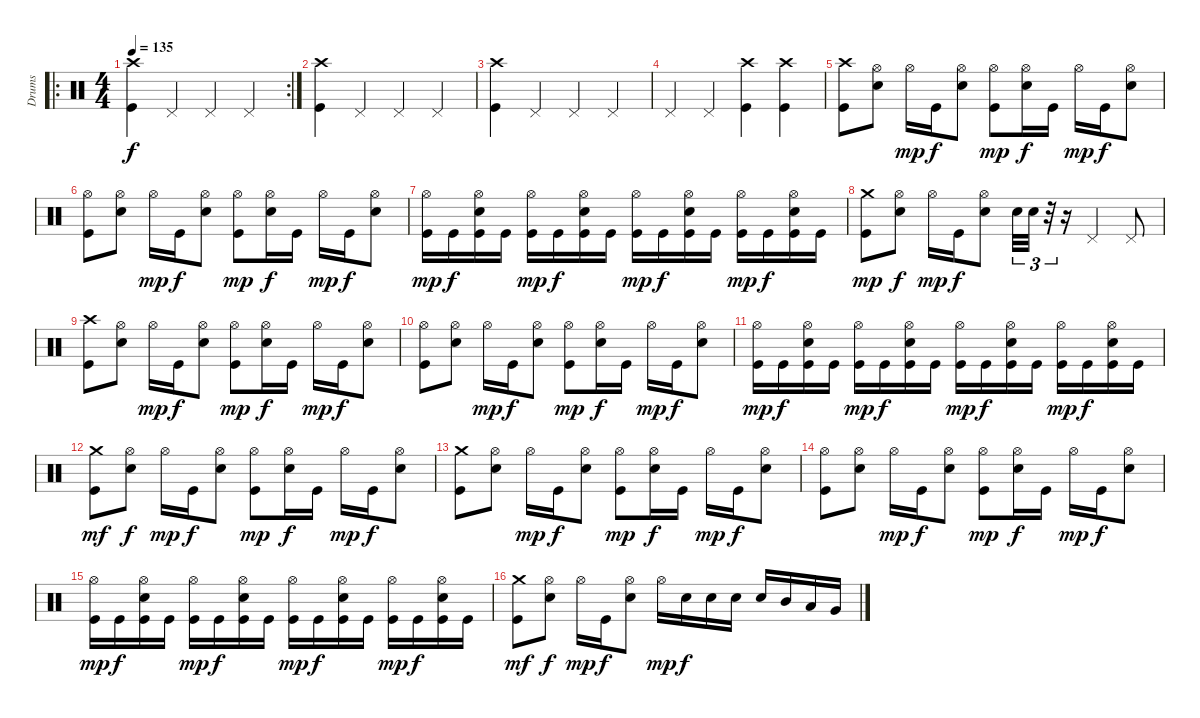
\track ("Drums" "Drums") {instrument percussion}
\staff {score}
\articulation defaults
\ro
\rc 2
\ts (4 4)
\tempo 135
\clef neutral
\ks c
("Crash high (hit)" "Kick (hit)").4{dy f} "Pedal Hi-Hat (hit)".4 "Pedal Hi-Hat (hit)".4 "Pedal Hi-Hat (hit)".4 |
("Crash high (hit)" "Kick (hit)").4 "Pedal Hi-Hat (hit)".4 "Pedal Hi-Hat (hit)".4 "Pedal Hi-Hat (hit)".4 |
("Crash high (hit)" "Kick (hit)").4 "Pedal Hi-Hat (hit)".4 "Pedal Hi-Hat (hit)".4 "Pedal Hi-Hat (hit)".4 |
"Pedal Hi-Hat (hit)".4 "Pedal Hi-Hat (hit)".4 ("Crash high (hit)" "Kick (hit)").4 ("Crash high (hit)" "Kick (hit)").4 |
("Crash high (hit)" "Kick (hit)").8 ("Hi-Hat (open)" "Snare (hit) 2").8 "Hi-Hat (open)".16{dy mp} "Kick (hit)".16{dy f} ("Hi-Hat (open)" "Snare (hit) 2").8 ("Hi-Hat (open)" "Kick (hit)").8{dy mp} ("Hi-Hat (open)" "Snare (hit) 2").16{dy f} "Kick (hit)".16 "Hi-Hat (open)".16{dy mp} "Kick (hit)".16{dy f} ("Hi-Hat (open)" "Snare (hit) 2").8 |
("Hi-Hat (open)" "Kick (hit)").8 ("Hi-Hat (open)" "Snare (hit) 2").8 "Hi-Hat (open)".16{dy mp} "Kick (hit)".16{dy f} ("Hi-Hat (open)" "Snare (hit) 2").8 ("Hi-Hat (open)" "Kick (hit)").8{dy mp} ("Hi-Hat (open)" "Snare (hit) 2").16{dy f} "Kick (hit)".16 "Hi-Hat (open)".16{dy mp} "Kick (hit)".16{dy f} ("Hi-Hat (open)" "Snare (hit) 2").8 |
("Hi-Hat (open)" "Kick (hit)").16{dy mp} "Kick (hit)".16{dy f} ("Hi-Hat (open)" "Snare (hit) 2" "Kick (hit)").16 "Kick (hit)".16 ("Hi-Hat (open)" "Kick (hit)").16{dy mp} "Kick (hit)".16{dy f} ("Hi-Hat (open)" "Snare (hit) 2" "Kick (hit)").16 "Kick (hit)".16 ("Hi-Hat (open)" "Kick (hit)").16{dy mp} "Kick (hit)".16{dy f} ("Hi-Hat (open)" "Snare (hit) 2" "Kick (hit)").16 "Kick (hit)".16 ("Hi-Hat (open)" "Kick (hit)").16{dy mp} "Kick (hit)".16{dy f} ("Hi-Hat (open)" "Snare (hit) 2" "Kick (hit)").16 "Kick (hit)".16 |
("Crash medium (hit)" "Kick (hit)").8{dy mp} ("Hi-Hat (open)" "Snare (hit) 2").8{dy f} "Hi-Hat (open)".16{dy mp} "Kick (hit)".16{dy f} ("Hi-Hat (open)" "Snare (hit) 2").8 "Snare (hit) 2".32{tu (3 2)} "Snare (hit) 2".32{tu (3 2)} r.32{tu (3 2)} r.16 "Pedal Hi-Hat (hit)".4 "Pedal Hi-Hat (hit)".8 |
("Crash high (hit)" "Kick (hit)").8 ("Hi-Hat (open)" "Snare (hit) 2").8 "Hi-Hat (open)".16{dy mp} "Kick (hit)".16{dy f} ("Hi-Hat (open)" "Snare (hit) 2").8 ("Hi-Hat (open)" "Kick (hit)").8{dy mp} ("Hi-Hat (open)" "Snare (hit) 2").16{dy f} "Kick (hit)".16 "Hi-Hat (open)".16{dy mp} "Kick (hit)".16{dy f} ("Hi-Hat (open)" "Snare (hit) 2").8 |
("Hi-Hat (open)" "Kick (hit)").8 ("Hi-Hat (open)" "Snare (hit) 2").8 "Hi-Hat (open)".16{dy mp} "Kick (hit)".16{dy f} ("Hi-Hat (open)" "Snare (hit) 2").8 ("Hi-Hat (open)" "Kick (hit)").8{dy mp} ("Hi-Hat (open)" "Snare (hit) 2").16{dy f} "Kick (hit)".16 "Hi-Hat (open)".16{dy mp} "Kick (hit)".16{dy f} ("Hi-Hat (open)" "Snare (hit) 2").8 |
("Hi-Hat (open)" "Kick (hit)").16{dy mp} "Kick (hit)".16{dy f} ("Hi-Hat (open)" "Snare (hit) 2" "Kick (hit)").16 "Kick (hit)".16 ("Hi-Hat (open)" "Kick (hit)").16{dy mp} "Kick (hit)".16{dy f} ("Hi-Hat (open)" "Snare (hit) 2" "Kick (hit)").16 "Kick (hit)".16 ("Hi-Hat (open)" "Kick (hit)").16{dy mp} "Kick (hit)".16{dy f} ("Hi-Hat (open)" "Snare (hit) 2" "Kick (hit)").16 "Kick (hit)".16 ("Hi-Hat (open)" "Kick (hit)").16{dy mp} "Kick (hit)".16{dy f} ("Hi-Hat (open)" "Snare (hit) 2" "Kick (hit)").16 "Kick (hit)".16 |
("Crash medium (hit)" "Kick (hit)").8{dy mf} ("Hi-Hat (open)" "Snare (hit) 2").8{dy f} "Hi-Hat (open)".16{dy mp} "Kick (hit)".16{dy f} ("Hi-Hat (open)" "Snare (hit) 2").8 ("Hi-Hat (open)" "Kick (hit)").8{dy mp} ("Hi-Hat (open)" "Snare (hit) 2").16{dy f} "Kick (hit)".16 "Hi-Hat (open)".16{dy mp} "Kick (hit)".16{dy f} ("Hi-Hat (open)" "Snare (hit) 2").8 |
("Crash medium (hit)" "Kick (hit)").8 ("Hi-Hat (open)" "Snare (hit) 2").8 "Hi-Hat (open)".16{dy mp} "Kick (hit)".16{dy f} ("Hi-Hat (open)" "Snare (hit) 2").8 ("Hi-Hat (open)" "Kick (hit)").8{dy mp} ("Hi-Hat (open)" "Snare (hit) 2").16{dy f} "Kick (hit)".16 "Hi-Hat (open)".16{dy mp} "Kick (hit)".16{dy f} ("Hi-Hat (open)" "Snare (hit) 2").8 |
("Hi-Hat (open)" "Kick (hit)").8 ("Hi-Hat (open)" "Snare (hit) 2").8 "Hi-Hat (open)".16{dy mp} "Kick (hit)".16{dy f} ("Hi-Hat (open)" "Snare (hit) 2").8 ("Hi-Hat (open)" "Kick (hit)").8{dy mp} ("Hi-Hat (open)" "Snare (hit) 2").16{dy f} "Kick (hit)".16 "Hi-Hat (open)".16{dy mp} "Kick (hit)".16{dy f} ("Hi-Hat (open)" "Snare (hit) 2").8 |
("Hi-Hat (open)" "Kick (hit)").16{dy mp} "Kick (hit)".16{dy f} ("Hi-Hat (open)" "Snare (hit) 2" "Kick (hit)").16 "Kick (hit)".16 ("Hi-Hat (open)" "Kick (hit)").16{dy mp} "Kick (hit)".16{dy f} ("Hi-Hat (open)" "Snare (hit) 2" "Kick (hit)").16 "Kick (hit)".16 ("Hi-Hat (open)" "Kick (hit)").16{dy mp} "Kick (hit)".16{dy f} ("Hi-Hat (open)" "Snare (hit) 2" "Kick (hit)").16 "Kick (hit)".16 ("Hi-Hat (open)" "Kick (hit)").16{dy mp} "Kick (hit)".16{dy f} ("Hi-Hat (open)" "Snare (hit) 2" "Kick (hit)").16 "Kick (hit)".16 |
("Crash medium (hit)" "Kick (hit)").8{dy mf} ("Hi-Hat (open)" "Snare (hit) 2").8{dy f} "Hi-Hat (open)".16{dy mp} "Kick (hit)".16{dy f} ("Hi-Hat (open)" "Snare (hit) 2").8 "Hi-Hat (open)".16{dy mp} "Snare (hit) 2".16{dy f} "Snare (hit) 2".16 "Snare (hit) 2".16 "Snare (hit) 2".16 "Mid Tom (hit)".16 "Low Tom (hit)".16 "Very Low Tom (hit)".16
